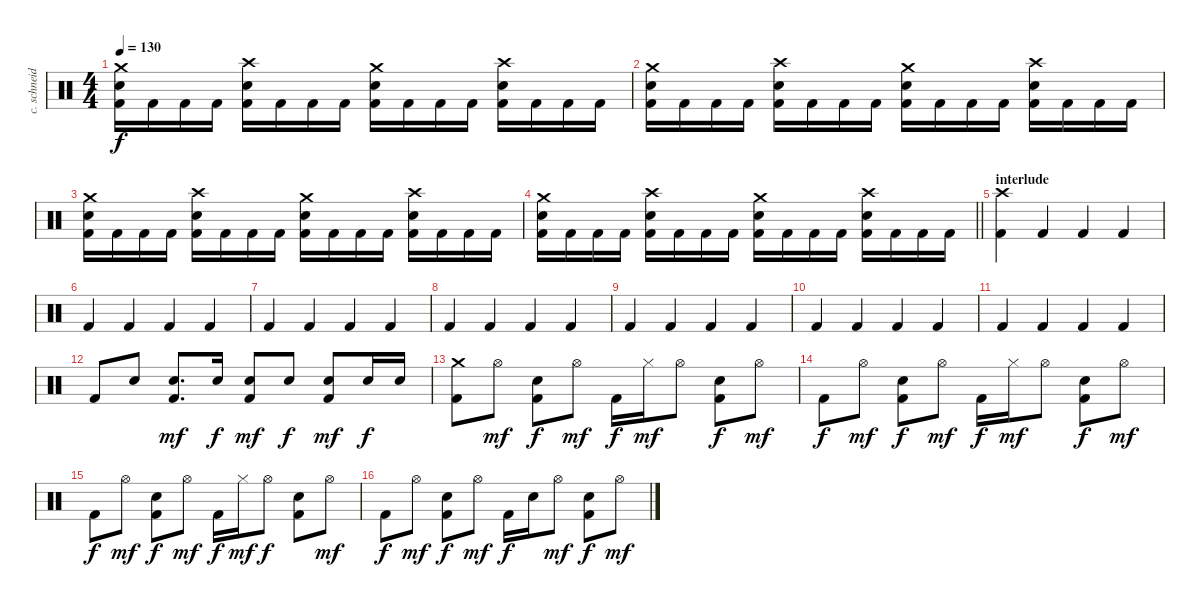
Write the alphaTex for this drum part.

\track ("c. schneider - drums" "c. schneid") {instrument percussion}
\staff {score}
\articulation defaults
\ts (4 4)
\tempo 130
\clef neutral
\ks c
("Crash medium (hit)" "Electric Snare (hit)" "Kick (hit) 2").16{dy f} "Kick (hit) 2".16 "Kick (hit) 2".16 "Kick (hit) 2".16 ("Crash high (hit)" "Electric Snare (hit)" "Kick (hit) 2").16 "Kick (hit) 2".16 "Kick (hit) 2".16 "Kick (hit) 2".16 ("Crash medium (hit)" "Electric Snare (hit)" "Kick (hit) 2").16 "Kick (hit) 2".16 "Kick (hit) 2".16 "Kick (hit) 2".16 ("Crash high (hit)" "Electric Snare (hit)" "Kick (hit) 2").16 "Kick (hit) 2".16 "Kick (hit) 2".16 "Kick (hit) 2".16 |
("Crash medium (hit)" "Electric Snare (hit)" "Kick (hit) 2").16 "Kick (hit) 2".16 "Kick (hit) 2".16 "Kick (hit) 2".16 ("Crash high (hit)" "Electric Snare (hit)" "Kick (hit) 2").16 "Kick (hit) 2".16 "Kick (hit) 2".16 "Kick (hit) 2".16 ("Crash medium (hit)" "Electric Snare (hit)" "Kick (hit) 2").16 "Kick (hit) 2".16 "Kick (hit) 2".16 "Kick (hit) 2".16 ("Crash high (hit)" "Electric Snare (hit)" "Kick (hit) 2").16 "Kick (hit) 2".16 "Kick (hit) 2".16 "Kick (hit) 2".16 |
("Crash medium (hit)" "Electric Snare (hit)" "Kick (hit) 2").16 "Kick (hit) 2".16 "Kick (hit) 2".16 "Kick (hit) 2".16 ("Crash high (hit)" "Electric Snare (hit)" "Kick (hit) 2").16 "Kick (hit) 2".16 "Kick (hit) 2".16 "Kick (hit) 2".16 ("Crash medium (hit)" "Electric Snare (hit)" "Kick (hit) 2").16 "Kick (hit) 2".16 "Kick (hit) 2".16 "Kick (hit) 2".16 ("Crash high (hit)" "Electric Snare (hit)" "Kick (hit) 2").16 "Kick (hit) 2".16 "Kick (hit) 2".16 "Kick (hit) 2".16 |
\barLineRight lightlight
("Crash medium (hit)" "Electric Snare (hit)" "Kick (hit) 2").16 "Kick (hit) 2".16 "Kick (hit) 2".16 "Kick (hit) 2".16 ("Crash high (hit)" "Electric Snare (hit)" "Kick (hit) 2").16 "Kick (hit) 2".16 "Kick (hit) 2".16 "Kick (hit) 2".16 ("Crash medium (hit)" "Electric Snare (hit)" "Kick (hit) 2").16 "Kick (hit) 2".16 "Kick (hit) 2".16 "Kick (hit) 2".16 ("Crash high (hit)" "Electric Snare (hit)" "Kick (hit) 2").16 "Kick (hit) 2".16 "Kick (hit) 2".16 "Kick (hit) 2".16 |
\section ("" "interlude")
("Crash high (hit)" "Kick (hit) 2").4 "Kick (hit) 2".4 "Kick (hit) 2".4 "Kick (hit) 2".4 |
"Kick (hit) 2".4 "Kick (hit) 2".4 "Kick (hit) 2".4 "Kick (hit) 2".4 |
"Kick (hit) 2".4 "Kick (hit) 2".4 "Kick (hit) 2".4 "Kick (hit) 2".4 |
"Kick (hit) 2".4 "Kick (hit) 2".4 "Kick (hit) 2".4 "Kick (hit) 2".4 |
"Kick (hit) 2".4 "Kick (hit) 2".4 "Kick (hit) 2".4 "Kick (hit) 2".4 |
"Kick (hit) 2".4 "Kick (hit) 2".4 "Kick (hit) 2".4 "Kick (hit) 2".4 |
"Kick (hit) 2".4 "Kick (hit) 2".4 "Kick (hit) 2".4 "Kick (hit) 2".4 |
"Kick (hit) 2".8 "Electric Snare (hit)".8 ("Electric Snare (hit)" "Kick (hit) 2").8{d dy mf} "Electric Snare (hit)".16{dy f} ("Electric Snare (hit)" "Kick (hit) 2").8{dy mf} "Electric Snare (hit)".8{dy f} ("Electric Snare (hit)" "Kick (hit) 2").8{dy mf} "Electric Snare (hit)".16{dy f} "Electric Snare (hit)".16 |
("Crash medium (hit)" "Kick (hit) 2").8 "Hi-Hat (open)".8{dy mf} ("Electric Snare (hit)" "Kick (hit) 2").8{dy f} "Hi-Hat (open)".8{dy mf} "Kick (hit) 2".16{dy f} "Hi-Hat (closed)".16{dy mf} "Hi-Hat (open)".8 ("Electric Snare (hit)" "Kick (hit) 2").8{dy f} "Hi-Hat (open)".8{dy mf} |
"Kick (hit) 2".8{dy f} "Hi-Hat (open)".8{dy mf} ("Electric Snare (hit)" "Kick (hit) 2").8{dy f} "Hi-Hat (open)".8{dy mf} "Kick (hit) 2".16{dy f} "Hi-Hat (closed)".16{dy mf} "Hi-Hat (open)".8 ("Electric Snare (hit)" "Kick (hit) 2").8{dy f} "Hi-Hat (open)".8{dy mf} |
"Kick (hit) 2".8{dy f} "Hi-Hat (open)".8{dy mf} ("Electric Snare (hit)" "Kick (hit) 2").8{dy f} "Hi-Hat (open)".8{dy mf} "Kick (hit) 2".16{dy f} "Hi-Hat (closed)".16{dy mf} "Hi-Hat (open)".8{dy f} ("Electric Snare (hit)" "Kick (hit) 2").8 "Hi-Hat (open)".8{dy mf} |
"Kick (hit) 2".8{dy f} "Hi-Hat (open)".8{dy mf} ("Electric Snare (hit)" "Kick (hit) 2").8{dy f} "Hi-Hat (open)".8{dy mf} "Kick (hit) 2".16{dy f} "Electric Snare (hit)".16 "Hi-Hat (open)".8{dy mf} ("Electric Snare (hit)" "Kick (hit) 2").8{dy f} "Hi-Hat (open)".8{dy mf}
